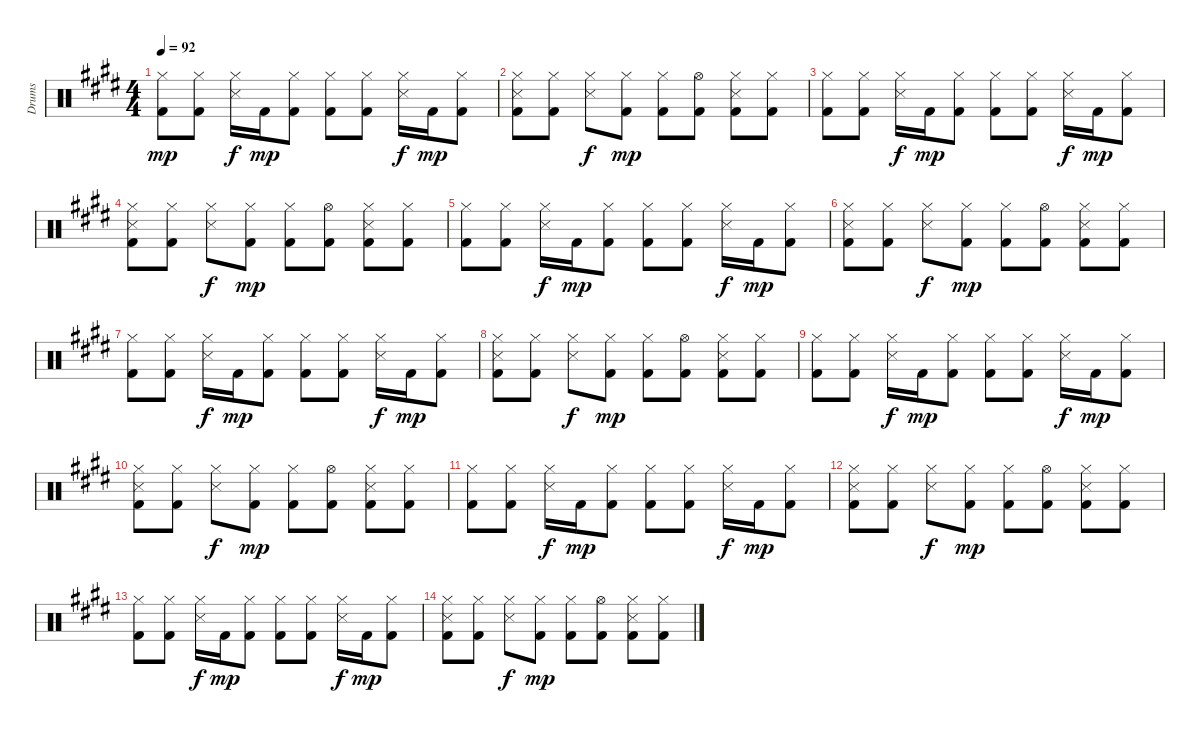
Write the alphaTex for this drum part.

\track ("Drums" "Drums") {instrument percussion}
\staff {score}
\articulation defaults
\ts (4 4)
\tempo 92
\clef neutral
\ks e
("Hi-Hat (closed)" "Kick (hit) 2").8{dy mp} ("Hi-Hat (closed)" "Kick (hit) 2").8 ("Hi-Hat (closed)" "Snare (side stick) 3").16{dy f} "Kick (hit) 2".16{dy mp} ("Hi-Hat (closed)" "Kick (hit) 2").8 ("Hi-Hat (closed)" "Kick (hit) 2").8 ("Hi-Hat (closed)" "Kick (hit) 2").8 ("Hi-Hat (closed)" "Snare (side stick) 3").16{dy f} "Kick (hit) 2".16{dy mp} ("Hi-Hat (closed)" "Kick (hit) 2").8 |
("Hi-Hat (closed)" "Snare (side stick) 3" "Kick (hit) 2").8 ("Hi-Hat (closed)" "Kick (hit) 2").8 ("Hi-Hat (closed)" "Snare (side stick) 3").8{dy f} ("Hi-Hat (closed)" "Kick (hit) 2").8{dy mp} ("Hi-Hat (closed)" "Kick (hit) 2").8 ("Hi-Hat (open)" "Kick (hit) 2").8 ("Hi-Hat (closed)" "Snare (side stick) 3" "Kick (hit) 2").8 ("Hi-Hat (closed)" "Kick (hit) 2").8 |
("Hi-Hat (closed)" "Kick (hit) 2").8 ("Hi-Hat (closed)" "Kick (hit) 2").8 ("Hi-Hat (closed)" "Snare (side stick) 3").16{dy f} "Kick (hit) 2".16{dy mp} ("Hi-Hat (closed)" "Kick (hit) 2").8 ("Hi-Hat (closed)" "Kick (hit) 2").8 ("Hi-Hat (closed)" "Kick (hit) 2").8 ("Hi-Hat (closed)" "Snare (side stick) 3").16{dy f} "Kick (hit) 2".16{dy mp} ("Hi-Hat (closed)" "Kick (hit) 2").8 |
("Hi-Hat (closed)" "Snare (side stick) 3" "Kick (hit) 2").8 ("Hi-Hat (closed)" "Kick (hit) 2").8 ("Hi-Hat (closed)" "Snare (side stick) 3").8{dy f} ("Hi-Hat (closed)" "Kick (hit) 2").8{dy mp} ("Hi-Hat (closed)" "Kick (hit) 2").8 ("Hi-Hat (open)" "Kick (hit) 2").8 ("Hi-Hat (closed)" "Snare (side stick) 3" "Kick (hit) 2").8 ("Hi-Hat (closed)" "Kick (hit) 2").8 |
("Hi-Hat (closed)" "Kick (hit) 2").8 ("Hi-Hat (closed)" "Kick (hit) 2").8 ("Hi-Hat (closed)" "Snare (side stick) 3").16{dy f} "Kick (hit) 2".16{dy mp} ("Hi-Hat (closed)" "Kick (hit) 2").8 ("Hi-Hat (closed)" "Kick (hit) 2").8 ("Hi-Hat (closed)" "Kick (hit) 2").8 ("Hi-Hat (closed)" "Snare (side stick) 3").16{dy f} "Kick (hit) 2".16{dy mp} ("Hi-Hat (closed)" "Kick (hit) 2").8 |
("Hi-Hat (closed)" "Snare (side stick) 3" "Kick (hit) 2").8 ("Hi-Hat (closed)" "Kick (hit) 2").8 ("Hi-Hat (closed)" "Snare (side stick) 3").8{dy f} ("Hi-Hat (closed)" "Kick (hit) 2").8{dy mp} ("Hi-Hat (closed)" "Kick (hit) 2").8 ("Hi-Hat (open)" "Kick (hit) 2").8 ("Hi-Hat (closed)" "Snare (side stick) 3" "Kick (hit) 2").8 ("Hi-Hat (closed)" "Kick (hit) 2").8 |
("Hi-Hat (closed)" "Kick (hit) 2").8 ("Hi-Hat (closed)" "Kick (hit) 2").8 ("Hi-Hat (closed)" "Snare (side stick) 3").16{dy f} "Kick (hit) 2".16{dy mp} ("Hi-Hat (closed)" "Kick (hit) 2").8 ("Hi-Hat (closed)" "Kick (hit) 2").8 ("Hi-Hat (closed)" "Kick (hit) 2").8 ("Hi-Hat (closed)" "Snare (side stick) 3").16{dy f} "Kick (hit) 2".16{dy mp} ("Hi-Hat (closed)" "Kick (hit) 2").8 |
("Hi-Hat (closed)" "Snare (side stick) 3" "Kick (hit) 2").8 ("Hi-Hat (closed)" "Kick (hit) 2").8 ("Hi-Hat (closed)" "Snare (side stick) 3").8{dy f} ("Hi-Hat (closed)" "Kick (hit) 2").8{dy mp} ("Hi-Hat (closed)" "Kick (hit) 2").8 ("Hi-Hat (open)" "Kick (hit) 2").8 ("Hi-Hat (closed)" "Snare (side stick) 3" "Kick (hit) 2").8 ("Hi-Hat (closed)" "Kick (hit) 2").8 |
("Hi-Hat (closed)" "Kick (hit) 2").8 ("Hi-Hat (closed)" "Kick (hit) 2").8 ("Hi-Hat (closed)" "Snare (side stick) 3").16{dy f} "Kick (hit) 2".16{dy mp} ("Hi-Hat (closed)" "Kick (hit) 2").8 ("Hi-Hat (closed)" "Kick (hit) 2").8 ("Hi-Hat (closed)" "Kick (hit) 2").8 ("Hi-Hat (closed)" "Snare (side stick) 3").16{dy f} "Kick (hit) 2".16{dy mp} ("Hi-Hat (closed)" "Kick (hit) 2").8 |
("Hi-Hat (closed)" "Snare (side stick) 3" "Kick (hit) 2").8 ("Hi-Hat (closed)" "Kick (hit) 2").8 ("Hi-Hat (closed)" "Snare (side stick) 3").8{dy f} ("Hi-Hat (closed)" "Kick (hit) 2").8{dy mp} ("Hi-Hat (closed)" "Kick (hit) 2").8 ("Hi-Hat (open)" "Kick (hit) 2").8 ("Hi-Hat (closed)" "Snare (side stick) 3" "Kick (hit) 2").8 ("Hi-Hat (closed)" "Kick (hit) 2").8 |
("Hi-Hat (closed)" "Kick (hit) 2").8 ("Hi-Hat (closed)" "Kick (hit) 2").8 ("Hi-Hat (closed)" "Snare (side stick) 3").16{dy f} "Kick (hit) 2".16{dy mp} ("Hi-Hat (closed)" "Kick (hit) 2").8 ("Hi-Hat (closed)" "Kick (hit) 2").8 ("Hi-Hat (closed)" "Kick (hit) 2").8 ("Hi-Hat (closed)" "Snare (side stick) 3").16{dy f} "Kick (hit) 2".16{dy mp} ("Hi-Hat (closed)" "Kick (hit) 2").8 |
("Hi-Hat (closed)" "Snare (side stick) 3" "Kick (hit) 2").8 ("Hi-Hat (closed)" "Kick (hit) 2").8 ("Hi-Hat (closed)" "Snare (side stick) 3").8{dy f} ("Hi-Hat (closed)" "Kick (hit) 2").8{dy mp} ("Hi-Hat (closed)" "Kick (hit) 2").8 ("Hi-Hat (open)" "Kick (hit) 2").8 ("Hi-Hat (closed)" "Snare (side stick) 3" "Kick (hit) 2").8 ("Hi-Hat (closed)" "Kick (hit) 2").8 |
("Hi-Hat (closed)" "Kick (hit) 2").8 ("Hi-Hat (closed)" "Kick (hit) 2").8 ("Hi-Hat (closed)" "Snare (side stick) 3").16{dy f} "Kick (hit) 2".16{dy mp} ("Hi-Hat (closed)" "Kick (hit) 2").8 ("Hi-Hat (closed)" "Kick (hit) 2").8 ("Hi-Hat (closed)" "Kick (hit) 2").8 ("Hi-Hat (closed)" "Snare (side stick) 3").16{dy f} "Kick (hit) 2".16{dy mp} ("Hi-Hat (closed)" "Kick (hit) 2").8 |
("Hi-Hat (closed)" "Snare (side stick) 3" "Kick (hit) 2").8 ("Hi-Hat (closed)" "Kick (hit) 2").8 ("Hi-Hat (closed)" "Snare (side stick) 3").8{dy f} ("Hi-Hat (closed)" "Kick (hit) 2").8{dy mp} ("Hi-Hat (closed)" "Kick (hit) 2").8 ("Hi-Hat (open)" "Kick (hit) 2").8 ("Hi-Hat (closed)" "Snare (side stick) 3" "Kick (hit) 2").8 ("Hi-Hat (closed)" "Kick (hit) 2").8
